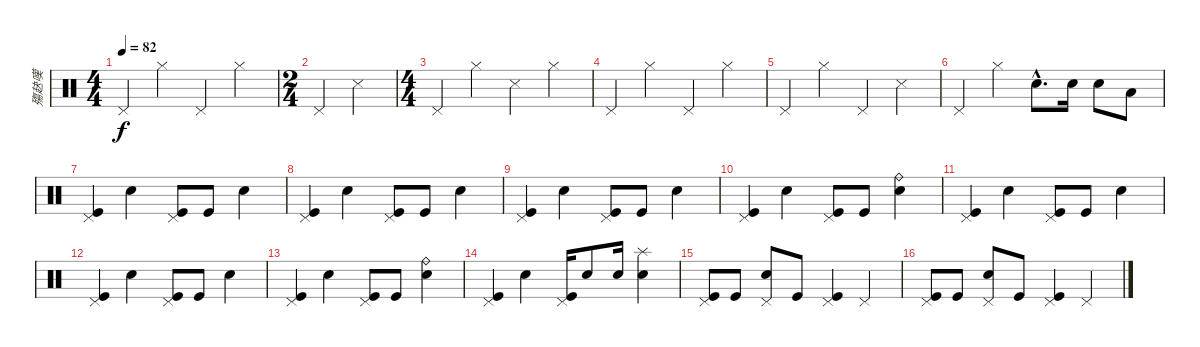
\track ("殤赽嘆" "殤赽嘆") {instrument percussion}
\staff {score}
\articulation defaults
\ts (4 4)
\tempo 82
\clef neutral
\ks c "Pedal Hi-Hat (hit)".4{dy f} "Hi-Hat (closed)".4 "Pedal Hi-Hat (hit)".4 "Hi-Hat (closed)".4
|
\ts (2 4)
"Pedal Hi-Hat (hit)".4 "Snare (side stick) 3".4 |
\ts (4 4)
"Pedal Hi-Hat (hit)".4 "Hi-Hat (closed)".4 "Snare (side stick) 3".4 "Hi-Hat (closed)".4 |
"Pedal Hi-Hat (hit)".4 "Hi-Hat (closed)".4 "Pedal Hi-Hat (hit)".4 "Hi-Hat (closed)".4 |
"Pedal Hi-Hat (hit)".4 "Hi-Hat (closed)".4 "Pedal Hi-Hat (hit)".4 "Snare (side stick) 3".4 |
"Pedal Hi-Hat (hit)".4 "Hi-Hat (closed)".4 "Snare (hit) 2"{hac}.8{d} "Snare (hit) 2".16 "Snare (hit) 2".8 "Low Tom (hit)".8 |
("Pedal Hi-Hat (hit)" "Kick (hit)").4 "Snare (hit) 2".4 ("Pedal Hi-Hat (hit)" "Kick (hit)").8 "Kick (hit)".8 "Snare (hit) 2".4 |
("Pedal Hi-Hat (hit)" "Kick (hit)").4 "Snare (hit) 2".4 ("Pedal Hi-Hat (hit)" "Kick (hit)").8 "Kick (hit)".8 "Snare (hit) 2".4 |
("Pedal Hi-Hat (hit)" "Kick (hit)").4 "Snare (hit) 2".4 ("Pedal Hi-Hat (hit)" "Kick (hit)").8 "Kick (hit)".8 "Snare (hit) 2".4 |
("Pedal Hi-Hat (hit)" "Kick (hit)").4 "Snare (hit) 2".4 ("Pedal Hi-Hat (hit)" "Kick (hit)").8 "Kick (hit)".8 ("Ride (bell)" "Snare (hit) 2").4 |
("Pedal Hi-Hat (hit)" "Kick (hit)").4 "Snare (hit) 2".4 ("Pedal Hi-Hat (hit)" "Kick (hit)").8 "Kick (hit)".8 "Snare (hit) 2".4 |
("Pedal Hi-Hat (hit)" "Kick (hit)").4 "Snare (hit) 2".4 ("Pedal Hi-Hat (hit)" "Kick (hit)").8 "Kick (hit)".8 "Snare (hit) 2".4 |
("Pedal Hi-Hat (hit)" "Kick (hit)").4 "Snare (hit) 2".4 ("Pedal Hi-Hat (hit)" "Kick (hit)").8 "Kick (hit)".8 ("Ride (bell)" "Snare (hit) 2").4 |
("Pedal Hi-Hat (hit)" "Kick (hit)").4 "Snare (hit) 2".4 ("Pedal Hi-Hat (hit)" "Kick (hit)").16 "Snare (hit) 2".8 "Snare (hit) 2".16 ("Splash (hit)" "Snare (hit) 2").4 |
("Pedal Hi-Hat (hit)" "Kick (hit)").8 "Kick (hit)".8 ("Pedal Hi-Hat (hit)" "Snare (hit) 2").8 "Kick (hit)".8 ("Pedal Hi-Hat (hit)" "Kick (hit)").4 "Pedal Hi-Hat (hit)".4 |
("Pedal Hi-Hat (hit)" "Kick (hit)").8 "Kick (hit)".8 ("Pedal Hi-Hat (hit)" "Snare (hit) 2").8 "Kick (hit)".8 ("Pedal Hi-Hat (hit)" "Kick (hit)").4 "Pedal Hi-Hat (hit)".4
